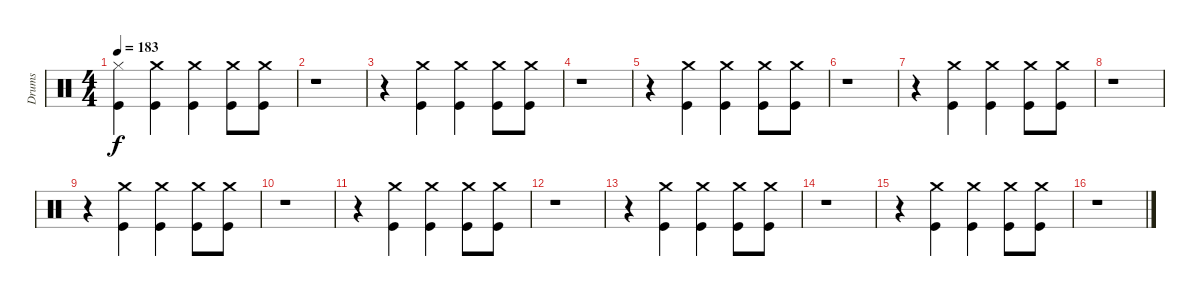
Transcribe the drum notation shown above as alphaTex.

\track ("Drums" "Drums") {instrument percussion}
\staff {score}
\articulation defaults
\ts (4 4)
\tempo 183
\clef neutral
\ks c
("Kick (hit)" "Hi-Hat (closed)").4{dy f} ("Crash medium (hit)" "Kick (hit)").4 ("Crash medium (hit)" "Kick (hit)").4 ("Kick (hit)" "Crash medium (hit)").8 ("Kick (hit)" "Crash medium (hit)").8 |
r.1 |
r.4 ("Kick (hit)" "Crash medium (hit)").4 ("Kick (hit)" "Crash medium (hit)").4 ("Kick (hit)" "Crash medium (hit)").8 ("Kick (hit)" "Crash medium (hit)").8 |
r.1 |
r.4 ("Crash medium (hit)" "Kick (hit)").4 ("Crash medium (hit)" "Kick (hit)").4 ("Kick (hit)" "Crash medium (hit)").8 ("Kick (hit)" "Crash medium (hit)").8 |
r.1 |
r.4 ("Kick (hit)" "Crash medium (hit)").4 ("Kick (hit)" "Crash medium (hit)").4 ("Kick (hit)" "Crash medium (hit)").8 ("Kick (hit)" "Crash medium (hit)").8 |
r.1 |
r.4 ("Crash medium (hit)" "Kick (hit)").4 ("Crash medium (hit)" "Kick (hit)").4 ("Kick (hit)" "Crash medium (hit)").8 ("Kick (hit)" "Crash medium (hit)").8 |
r.1 |
r.4 ("Kick (hit)" "Crash medium (hit)").4 ("Kick (hit)" "Crash medium (hit)").4 ("Kick (hit)" "Crash medium (hit)").8 ("Kick (hit)" "Crash medium (hit)").8 |
r.1 |
r.4 ("Crash medium (hit)" "Kick (hit)").4 ("Crash medium (hit)" "Kick (hit)").4 ("Kick (hit)" "Crash medium (hit)").8 ("Kick (hit)" "Crash medium (hit)").8 |
r.1 |
r.4 ("Kick (hit)" "Crash medium (hit)").4 ("Kick (hit)" "Crash medium (hit)").4 ("Kick (hit)" "Crash medium (hit)").8 ("Kick (hit)" "Crash medium (hit)").8 |
r.1
